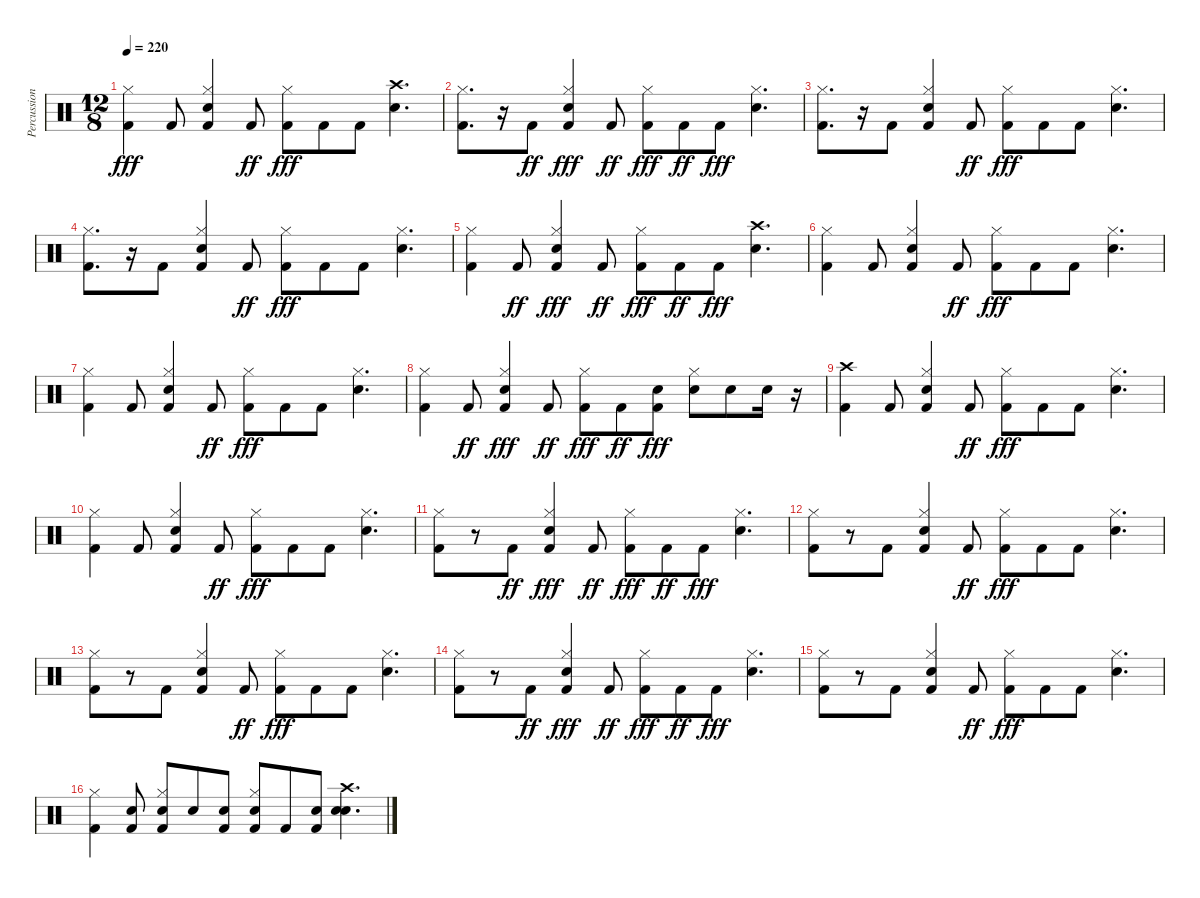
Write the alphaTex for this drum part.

\track ("Percussion" "Percussion") {instrument percussion}
\staff {score}
\articulation defaults
\ts (12 8)
\tempo 220
\clef neutral
\ks c
("Kick (hit) 2" "Hi-Hat (closed)").4{dy fff} "Kick (hit) 2".8 ("Kick (hit) 2" "Snare (hit) 2" "Hi-Hat (closed)").4 "Kick (hit) 2".8{dy ff} ("Kick (hit) 2" "Hi-Hat (closed)").8{dy fff} "Kick (hit) 2".8 "Kick (hit) 2".8 ("Snare (hit) 2" "Crash high (hit)").4{d} |
("Kick (hit) 2" "Hi-Hat (closed)").8{d} r.16 "Kick (hit) 2".8{dy ff} ("Kick (hit) 2" "Snare (hit) 2" "Hi-Hat (closed)").4{dy fff} "Kick (hit) 2".8{dy ff} ("Kick (hit) 2" "Hi-Hat (closed)").8{dy fff} "Kick (hit) 2".8{dy ff} "Kick (hit) 2".8{dy fff} ("Snare (hit) 2" "Hi-Hat (closed)").4{d} |
("Kick (hit) 2" "Hi-Hat (closed)").8{d} r.16 "Kick (hit) 2".8 ("Kick (hit) 2" "Snare (hit) 2" "Hi-Hat (closed)").4 "Kick (hit) 2".8{dy ff} ("Kick (hit) 2" "Hi-Hat (closed)").8{dy fff} "Kick (hit) 2".8 "Kick (hit) 2".8 ("Snare (hit) 2" "Hi-Hat (closed)").4{d} |
("Kick (hit) 2" "Hi-Hat (closed)").8{d} r.16 "Kick (hit) 2".8 ("Kick (hit) 2" "Snare (hit) 2" "Hi-Hat (closed)").4 "Kick (hit) 2".8{dy ff} ("Kick (hit) 2" "Hi-Hat (closed)").8{dy fff} "Kick (hit) 2".8 "Kick (hit) 2".8 ("Snare (hit) 2" "Hi-Hat (closed)").4{d} |
("Kick (hit) 2" "Hi-Hat (closed)").4 "Kick (hit) 2".8{dy ff} ("Kick (hit) 2" "Snare (hit) 2" "Hi-Hat (closed)").4{dy fff} "Kick (hit) 2".8{dy ff} ("Kick (hit) 2" "Hi-Hat (closed)").8{dy fff} "Kick (hit) 2".8{dy ff} "Kick (hit) 2".8{dy fff} ("Snare (hit) 2" "Crash high (hit)").4{d} |
("Kick (hit) 2" "Hi-Hat (closed)").4 "Kick (hit) 2".8 ("Kick (hit) 2" "Snare (hit) 2" "Hi-Hat (closed)").4 "Kick (hit) 2".8{dy ff} ("Kick (hit) 2" "Hi-Hat (closed)").8{dy fff} "Kick (hit) 2".8 "Kick (hit) 2".8 ("Snare (hit) 2" "Hi-Hat (closed)").4{d} |
("Kick (hit) 2" "Hi-Hat (closed)").4 "Kick (hit) 2".8 ("Kick (hit) 2" "Snare (hit) 2" "Hi-Hat (closed)").4 "Kick (hit) 2".8{dy ff} ("Kick (hit) 2" "Hi-Hat (closed)").8{dy fff} "Kick (hit) 2".8 "Kick (hit) 2".8 ("Snare (hit) 2" "Hi-Hat (closed)").4{d} |
("Kick (hit) 2" "Hi-Hat (closed)").4 "Kick (hit) 2".8{dy ff} ("Kick (hit) 2" "Snare (hit) 2" "Hi-Hat (closed)").4{dy fff} "Kick (hit) 2".8{dy ff} ("Kick (hit) 2" "Hi-Hat (closed)").8{dy fff} "Kick (hit) 2".8{dy ff} ("Kick (hit) 2" "Snare (hit) 2").8{dy fff} ("Snare (hit) 2" "Hi-Hat (closed)").8 "Snare (hit) 2".8 "Snare (hit) 2".16 r.16 |
("Kick (hit) 2" "Crash high (hit)").4 "Kick (hit) 2".8 ("Kick (hit) 2" "Snare (hit) 2" "Hi-Hat (closed)").4 "Kick (hit) 2".8{dy ff} ("Kick (hit) 2" "Hi-Hat (closed)").8{dy fff} "Kick (hit) 2".8 "Kick (hit) 2".8 ("Snare (hit) 2" "Hi-Hat (closed)").4{d} |
("Kick (hit) 2" "Hi-Hat (closed)").4 "Kick (hit) 2".8 ("Kick (hit) 2" "Snare (hit) 2" "Hi-Hat (closed)").4 "Kick (hit) 2".8{dy ff} ("Kick (hit) 2" "Hi-Hat (closed)").8{dy fff} "Kick (hit) 2".8 "Kick (hit) 2".8 ("Snare (hit) 2" "Hi-Hat (closed)").4{d} |
("Kick (hit) 2" "Hi-Hat (closed)").8 r.8 "Kick (hit) 2".8{dy ff} ("Kick (hit) 2" "Snare (hit) 2" "Hi-Hat (closed)").4{dy fff} "Kick (hit) 2".8{dy ff} ("Kick (hit) 2" "Hi-Hat (closed)").8{dy fff} "Kick (hit) 2".8{dy ff} "Kick (hit) 2".8{dy fff} ("Snare (hit) 2" "Hi-Hat (closed)").4{d} |
("Kick (hit) 2" "Hi-Hat (closed)").8 r.8 "Kick (hit) 2".8 ("Kick (hit) 2" "Snare (hit) 2" "Hi-Hat (closed)").4 "Kick (hit) 2".8{dy ff} ("Kick (hit) 2" "Hi-Hat (closed)").8{dy fff} "Kick (hit) 2".8 "Kick (hit) 2".8 ("Snare (hit) 2" "Hi-Hat (closed)").4{d} |
("Kick (hit) 2" "Hi-Hat (closed)").8 r.8 "Kick (hit) 2".8 ("Kick (hit) 2" "Snare (hit) 2" "Hi-Hat (closed)").4 "Kick (hit) 2".8{dy ff} ("Kick (hit) 2" "Hi-Hat (closed)").8{dy fff} "Kick (hit) 2".8 "Kick (hit) 2".8 ("Snare (hit) 2" "Hi-Hat (closed)").4{d} |
("Kick (hit) 2" "Hi-Hat (closed)").8 r.8 "Kick (hit) 2".8{dy ff} ("Kick (hit) 2" "Snare (hit) 2" "Hi-Hat (closed)").4{dy fff} "Kick (hit) 2".8{dy ff} ("Kick (hit) 2" "Hi-Hat (closed)").8{dy fff} "Kick (hit) 2".8{dy ff} "Kick (hit) 2".8{dy fff} ("Snare (hit) 2" "Hi-Hat (closed)").4{d} |
("Kick (hit) 2" "Hi-Hat (closed)").8 r.8 "Kick (hit) 2".8 ("Kick (hit) 2" "Snare (hit) 2" "Hi-Hat (closed)").4 "Kick (hit) 2".8{dy ff} ("Kick (hit) 2" "Hi-Hat (closed)").8{dy fff} "Kick (hit) 2".8 "Kick (hit) 2".8 ("Snare (hit) 2" "Hi-Hat (closed)").4{d} |
("Kick (hit) 2" "Hi-Hat (closed)").4 ("Kick (hit) 2" "Snare (hit) 2").8 ("Kick (hit) 2" "Snare (hit) 2" "Hi-Hat (closed)").8 "Snare (hit) 2".8 ("Kick (hit) 2" "Snare (hit) 2").8 ("Kick (hit) 2" "Snare (hit) 2" "Hi-Hat (closed)").8 "Kick (hit) 2".8 ("Kick (hit) 2" "Snare (hit) 2").8 ("Snare (hit) 2" "Snare (hit) 2" "Crash high (hit)").4{d}
